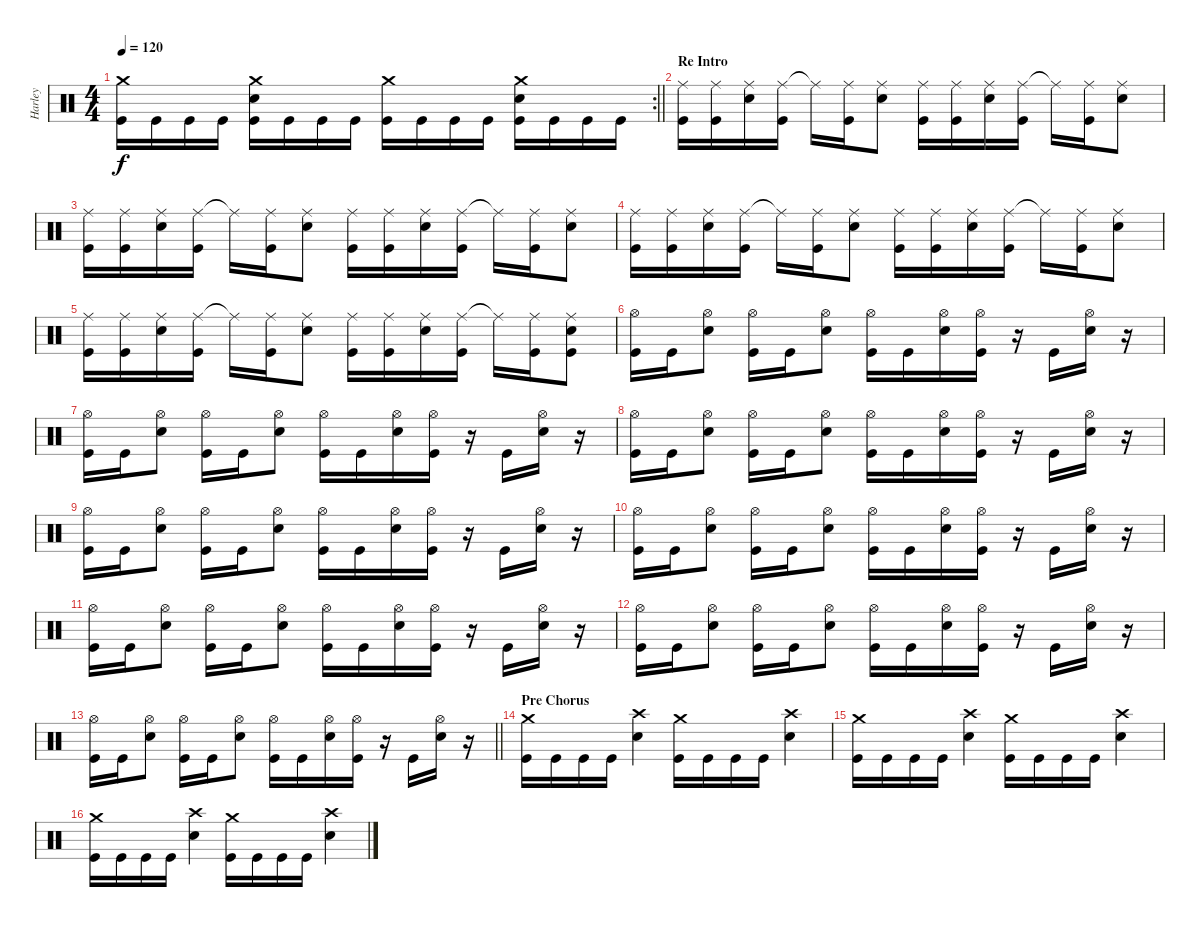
\track ("Harley" "Harley") {instrument percussion}
\staff {score}
\articulation defaults
\rc 2
\ts (4 4)
\tempo 120
\clef neutral
\barLineRight lightlight
\ks c
("Crash medium (hit)" "Kick (hit)").16{dy f} "Kick (hit)".16 "Kick (hit)".16 "Kick (hit)".16 ("Crash medium (hit)" "Snare (hit) 2" "Kick (hit)").16 "Kick (hit)".16 "Kick (hit)".16 "Kick (hit)".16 ("Crash medium (hit)" "Kick (hit)").16 "Kick (hit)".16 "Kick (hit)".16 "Kick (hit)".16 ("Crash medium (hit)" "Snare (hit) 2" "Kick (hit)").16 "Kick (hit)".16 "Kick (hit)".16 "Kick (hit)".16 |
\section ("" "Re Intro")
("Ride (middle)" "Kick (hit)").16 ("Ride (middle)" "Kick (hit)").16 ("Ride (middle)" "Snare (hit) 2").16 ("Ride (middle)" "Kick (hit)").16 "Ride (middle)"{t}.16 ("Ride (middle)" "Kick (hit)").16 ("Ride (middle)" "Snare (hit) 2").8 ("Ride (middle)" "Kick (hit)").16 ("Ride (middle)" "Kick (hit)").16 ("Ride (middle)" "Snare (hit) 2").16 ("Ride (middle)" "Kick (hit)").16 "Ride (middle)"{t}.16 ("Ride (middle)" "Kick (hit)").16 ("Ride (middle)" "Snare (hit) 2").8 |
("Ride (middle)" "Kick (hit)").16 ("Ride (middle)" "Kick (hit)").16 ("Ride (middle)" "Snare (hit) 2").16 ("Ride (middle)" "Kick (hit)").16 "Ride (middle)"{t}.16 ("Ride (middle)" "Kick (hit)").16 ("Ride (middle)" "Snare (hit) 2").8 ("Ride (middle)" "Kick (hit)").16 ("Ride (middle)" "Kick (hit)").16 ("Ride (middle)" "Snare (hit) 2").16 ("Ride (middle)" "Kick (hit)").16 "Ride (middle)"{t}.16 ("Ride (middle)" "Kick (hit)").16 ("Ride (middle)" "Snare (hit) 2").8 |
("Ride (middle)" "Kick (hit)").16 ("Ride (middle)" "Kick (hit)").16 ("Ride (middle)" "Snare (hit) 2").16 ("Ride (middle)" "Kick (hit)").16 "Ride (middle)"{t}.16 ("Ride (middle)" "Kick (hit)").16 ("Ride (middle)" "Snare (hit) 2").8 ("Ride (middle)" "Kick (hit)").16 ("Ride (middle)" "Kick (hit)").16 ("Ride (middle)" "Snare (hit) 2").16 ("Ride (middle)" "Kick (hit)").16 "Ride (middle)"{t}.16 ("Ride (middle)" "Kick (hit)").16 ("Ride (middle)" "Snare (hit) 2").8 |
("Ride (middle)" "Kick (hit)").16 ("Ride (middle)" "Kick (hit)").16 ("Ride (middle)" "Snare (hit) 2").16 ("Ride (middle)" "Kick (hit)").16 "Ride (middle)"{t}.16 ("Ride (middle)" "Kick (hit)").16 ("Ride (middle)" "Snare (hit) 2").8 ("Ride (middle)" "Kick (hit)").16 ("Ride (middle)" "Kick (hit)").16 ("Ride (middle)" "Snare (hit) 2").16 ("Ride (middle)" "Kick (hit)").16 "Ride (middle)"{t}.16 ("Ride (middle)" "Kick (hit)").16 ("Ride (middle)" "Kick (hit)" "Snare (hit) 2").8 |
("Hi-Hat (open)" "Kick (hit)").16 "Kick (hit)".16 ("Hi-Hat (open)" "Snare (hit) 2").8 ("Hi-Hat (open)" "Kick (hit)").16 "Kick (hit)".16 ("Hi-Hat (open)" "Snare (hit) 2").8 ("Hi-Hat (open)" "Kick (hit)").16 "Kick (hit)".16 ("Hi-Hat (open)" "Snare (hit) 2").16 ("Hi-Hat (open)" "Kick (hit)").16 r.16 "Kick (hit)".16 ("Hi-Hat (open)" "Snare (hit) 2").16 r.16 |
("Hi-Hat (open)" "Kick (hit)").16 "Kick (hit)".16 ("Hi-Hat (open)" "Snare (hit) 2").8 ("Hi-Hat (open)" "Kick (hit)").16 "Kick (hit)".16 ("Hi-Hat (open)" "Snare (hit) 2").8 ("Hi-Hat (open)" "Kick (hit)").16 "Kick (hit)".16 ("Hi-Hat (open)" "Snare (hit) 2").16 ("Hi-Hat (open)" "Kick (hit)").16 r.16 "Kick (hit)".16 ("Hi-Hat (open)" "Snare (hit) 2").16 r.16 |
("Hi-Hat (open)" "Kick (hit)").16 "Kick (hit)".16 ("Hi-Hat (open)" "Snare (hit) 2").8 ("Hi-Hat (open)" "Kick (hit)").16 "Kick (hit)".16 ("Hi-Hat (open)" "Snare (hit) 2").8 ("Hi-Hat (open)" "Kick (hit)").16 "Kick (hit)".16 ("Hi-Hat (open)" "Snare (hit) 2").16 ("Hi-Hat (open)" "Kick (hit)").16 r.16 "Kick (hit)".16 ("Hi-Hat (open)" "Snare (hit) 2").16 r.16 |
("Hi-Hat (open)" "Kick (hit)").16 "Kick (hit)".16 ("Hi-Hat (open)" "Snare (hit) 2").8 ("Hi-Hat (open)" "Kick (hit)").16 "Kick (hit)".16 ("Hi-Hat (open)" "Snare (hit) 2").8 ("Hi-Hat (open)" "Kick (hit)").16 "Kick (hit)".16 ("Hi-Hat (open)" "Snare (hit) 2").16 ("Hi-Hat (open)" "Kick (hit)").16 r.16 "Kick (hit)".16 ("Hi-Hat (open)" "Snare (hit) 2").16 r.16 |
("Hi-Hat (open)" "Kick (hit)").16 "Kick (hit)".16 ("Hi-Hat (open)" "Snare (hit) 2").8 ("Hi-Hat (open)" "Kick (hit)").16 "Kick (hit)".16 ("Hi-Hat (open)" "Snare (hit) 2").8 ("Hi-Hat (open)" "Kick (hit)").16 "Kick (hit)".16 ("Hi-Hat (open)" "Snare (hit) 2").16 ("Hi-Hat (open)" "Kick (hit)").16 r.16 "Kick (hit)".16 ("Hi-Hat (open)" "Snare (hit) 2").16 r.16 |
("Hi-Hat (open)" "Kick (hit)").16 "Kick (hit)".16 ("Hi-Hat (open)" "Snare (hit) 2").8 ("Hi-Hat (open)" "Kick (hit)").16 "Kick (hit)".16 ("Hi-Hat (open)" "Snare (hit) 2").8 ("Hi-Hat (open)" "Kick (hit)").16 "Kick (hit)".16 ("Hi-Hat (open)" "Snare (hit) 2").16 ("Hi-Hat (open)" "Kick (hit)").16 r.16 "Kick (hit)".16 ("Hi-Hat (open)" "Snare (hit) 2").16 r.16 |
("Hi-Hat (open)" "Kick (hit)").16 "Kick (hit)".16 ("Hi-Hat (open)" "Snare (hit) 2").8 ("Hi-Hat (open)" "Kick (hit)").16 "Kick (hit)".16 ("Hi-Hat (open)" "Snare (hit) 2").8 ("Hi-Hat (open)" "Kick (hit)").16 "Kick (hit)".16 ("Hi-Hat (open)" "Snare (hit) 2").16 ("Hi-Hat (open)" "Kick (hit)").16 r.16 "Kick (hit)".16 ("Hi-Hat (open)" "Snare (hit) 2").16 r.16 |
\barLineRight lightlight
("Hi-Hat (open)" "Kick (hit)").16 "Kick (hit)".16 ("Hi-Hat (open)" "Snare (hit) 2").8 ("Hi-Hat (open)" "Kick (hit)").16 "Kick (hit)".16 ("Hi-Hat (open)" "Snare (hit) 2").8 ("Hi-Hat (open)" "Kick (hit)").16 "Kick (hit)".16 ("Hi-Hat (open)" "Snare (hit) 2").16 ("Hi-Hat (open)" "Kick (hit)").16 r.16 "Kick (hit)".16 ("Hi-Hat (open)" "Snare (hit) 2").16 r.16 |
\section ("" "Pre Chorus")
("Crash medium (hit)" "Kick (hit)").16 "Kick (hit)".16 "Kick (hit)".16 "Kick (hit)".16 ("Crash high (hit)" "Snare (hit) 2").4 ("Crash medium (hit)" "Kick (hit)").16 "Kick (hit)".16 "Kick (hit)".16 "Kick (hit)".16 ("Crash high (hit)" "Snare (hit) 2").4 |
("Crash medium (hit)" "Kick (hit)").16 "Kick (hit)".16 "Kick (hit)".16 "Kick (hit)".16 ("Crash high (hit)" "Snare (hit) 2").4 ("Crash medium (hit)" "Kick (hit)").16 "Kick (hit)".16 "Kick (hit)".16 "Kick (hit)".16 ("Crash high (hit)" "Snare (hit) 2").4 |
("Crash medium (hit)" "Kick (hit)").16 "Kick (hit)".16 "Kick (hit)".16 "Kick (hit)".16 ("Crash high (hit)" "Snare (hit) 2").4 ("Crash medium (hit)" "Kick (hit)").16 "Kick (hit)".16 "Kick (hit)".16 "Kick (hit)".16 ("Crash high (hit)" "Snare (hit) 2").4
